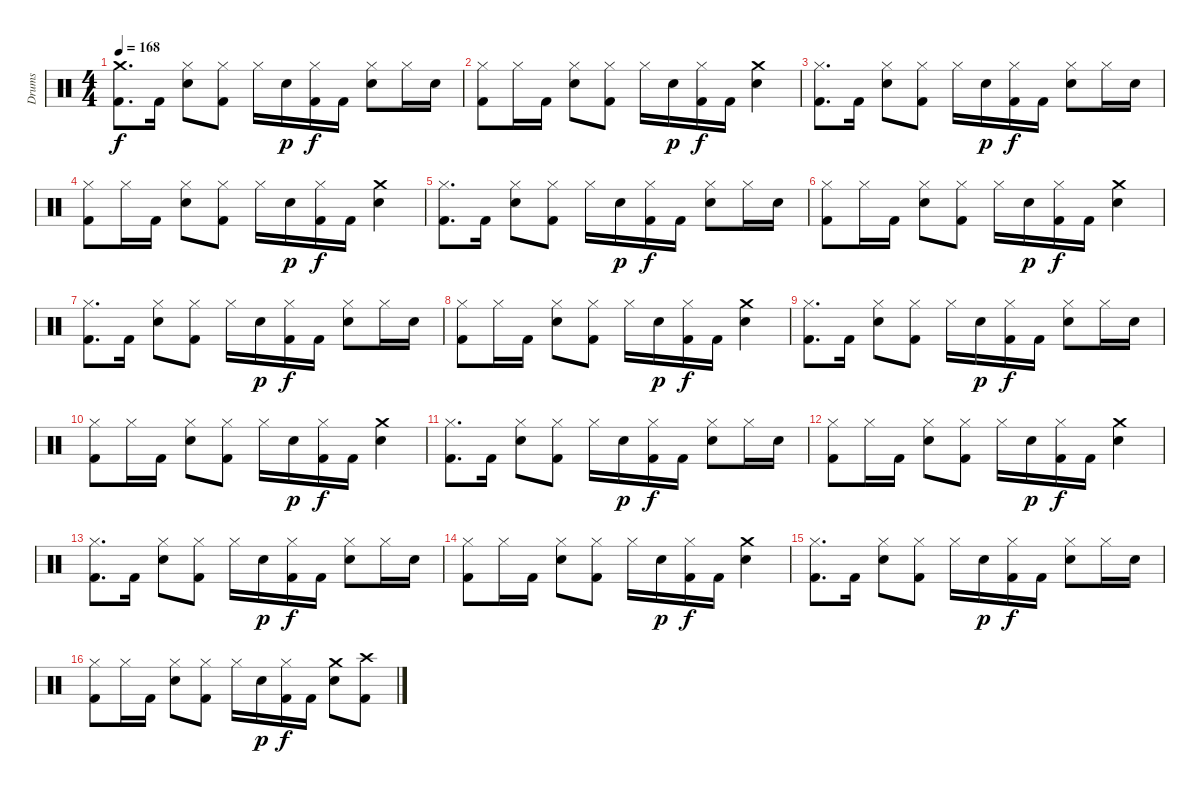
\bracketExtendMode groupsimilarinstruments
\track ("Drumkit" "Drums") {solo instrument percussion}
\staff {score}
\articulation defaults
\ts (4 4)
\tempo 168
\clef neutral
\ks c
("Crash medium (hit)" "Kick (hit) 2").8{d dy f} "Kick (hit) 2".16 ("Hi-Hat (closed)" "Snare (hit) 2").8 ("Hi-Hat (closed)" "Kick (hit) 2").8 "Hi-Hat (closed)".16 "Snare (hit) 2".16{dy p} ("Hi-Hat (closed)" "Kick (hit) 2").16{dy f} "Kick (hit) 2".16 ("Hi-Hat (closed)" "Snare (hit) 2").8 "Hi-Hat (closed)".16 "Snare (hit) 2".16 |
("Hi-Hat (closed)" "Kick (hit) 2").8 "Hi-Hat (closed)".16 "Kick (hit) 2".16 ("Hi-Hat (closed)" "Snare (hit) 2").8 ("Hi-Hat (closed)" "Kick (hit) 2").8 "Hi-Hat (closed)".16 "Snare (hit) 2".16{dy p} ("Hi-Hat (closed)" "Kick (hit) 2").16{dy f} "Kick (hit) 2".16 ("Crash medium (hit)" "Snare (hit) 2").4 |
("Hi-Hat (closed)" "Kick (hit) 2").8{d} "Kick (hit) 2".16 ("Hi-Hat (closed)" "Snare (hit) 2").8 ("Hi-Hat (closed)" "Kick (hit) 2").8 "Hi-Hat (closed)".16 "Snare (hit) 2".16{dy p} ("Hi-Hat (closed)" "Kick (hit) 2").16{dy f} "Kick (hit) 2".16 ("Hi-Hat (closed)" "Snare (hit) 2").8 "Hi-Hat (closed)".16 "Snare (hit) 2".16 |
("Hi-Hat (closed)" "Kick (hit) 2").8 "Hi-Hat (closed)".16 "Kick (hit) 2".16 ("Hi-Hat (closed)" "Snare (hit) 2").8 ("Hi-Hat (closed)" "Kick (hit) 2").8 "Hi-Hat (closed)".16 "Snare (hit) 2".16{dy p} ("Hi-Hat (closed)" "Kick (hit) 2").16{dy f} "Kick (hit) 2".16 ("Crash medium (hit)" "Snare (hit) 2").4 |
("Hi-Hat (closed)" "Kick (hit) 2").8{d} "Kick (hit) 2".16 ("Hi-Hat (closed)" "Snare (hit) 2").8 ("Hi-Hat (closed)" "Kick (hit) 2").8 "Hi-Hat (closed)".16 "Snare (hit) 2".16{dy p} ("Hi-Hat (closed)" "Kick (hit) 2").16{dy f} "Kick (hit) 2".16 ("Hi-Hat (closed)" "Snare (hit) 2").8 "Hi-Hat (closed)".16 "Snare (hit) 2".16 |
("Hi-Hat (closed)" "Kick (hit) 2").8 "Hi-Hat (closed)".16 "Kick (hit) 2".16 ("Hi-Hat (closed)" "Snare (hit) 2").8 ("Hi-Hat (closed)" "Kick (hit) 2").8 "Hi-Hat (closed)".16 "Snare (hit) 2".16{dy p} ("Hi-Hat (closed)" "Kick (hit) 2").16{dy f} "Kick (hit) 2".16 ("Crash medium (hit)" "Snare (hit) 2").4 |
("Hi-Hat (closed)" "Kick (hit) 2").8{d} "Kick (hit) 2".16 ("Hi-Hat (closed)" "Snare (hit) 2").8 ("Hi-Hat (closed)" "Kick (hit) 2").8 "Hi-Hat (closed)".16 "Snare (hit) 2".16{dy p} ("Hi-Hat (closed)" "Kick (hit) 2").16{dy f} "Kick (hit) 2".16 ("Hi-Hat (closed)" "Snare (hit) 2").8 "Hi-Hat (closed)".16 "Snare (hit) 2".16 |
("Hi-Hat (closed)" "Kick (hit) 2").8 "Hi-Hat (closed)".16 "Kick (hit) 2".16 ("Hi-Hat (closed)" "Snare (hit) 2").8 ("Hi-Hat (closed)" "Kick (hit) 2").8 "Hi-Hat (closed)".16 "Snare (hit) 2".16{dy p} ("Hi-Hat (closed)" "Kick (hit) 2").16{dy f} "Kick (hit) 2".16 ("Crash medium (hit)" "Snare (hit) 2").4 |
("Hi-Hat (closed)" "Kick (hit) 2").8{d} "Kick (hit) 2".16 ("Hi-Hat (closed)" "Snare (hit) 2").8 ("Hi-Hat (closed)" "Kick (hit) 2").8 "Hi-Hat (closed)".16 "Snare (hit) 2".16{dy p} ("Hi-Hat (closed)" "Kick (hit) 2").16{dy f} "Kick (hit) 2".16 ("Hi-Hat (closed)" "Snare (hit) 2").8 "Hi-Hat (closed)".16 "Snare (hit) 2".16 |
("Hi-Hat (closed)" "Kick (hit) 2").8 "Hi-Hat (closed)".16 "Kick (hit) 2".16 ("Hi-Hat (closed)" "Snare (hit) 2").8 ("Hi-Hat (closed)" "Kick (hit) 2").8 "Hi-Hat (closed)".16 "Snare (hit) 2".16{dy p} ("Hi-Hat (closed)" "Kick (hit) 2").16{dy f} "Kick (hit) 2".16 ("Crash medium (hit)" "Snare (hit) 2").4 |
("Hi-Hat (closed)" "Kick (hit) 2").8{d} "Kick (hit) 2".16 ("Hi-Hat (closed)" "Snare (hit) 2").8 ("Hi-Hat (closed)" "Kick (hit) 2").8 "Hi-Hat (closed)".16 "Snare (hit) 2".16{dy p} ("Hi-Hat (closed)" "Kick (hit) 2").16{dy f} "Kick (hit) 2".16 ("Hi-Hat (closed)" "Snare (hit) 2").8 "Hi-Hat (closed)".16 "Snare (hit) 2".16 |
("Hi-Hat (closed)" "Kick (hit) 2").8 "Hi-Hat (closed)".16 "Kick (hit) 2".16 ("Hi-Hat (closed)" "Snare (hit) 2").8 ("Hi-Hat (closed)" "Kick (hit) 2").8 "Hi-Hat (closed)".16 "Snare (hit) 2".16{dy p} ("Hi-Hat (closed)" "Kick (hit) 2").16{dy f} "Kick (hit) 2".16 ("Crash medium (hit)" "Snare (hit) 2").4 |
("Hi-Hat (closed)" "Kick (hit) 2").8{d} "Kick (hit) 2".16 ("Hi-Hat (closed)" "Snare (hit) 2").8 ("Hi-Hat (closed)" "Kick (hit) 2").8 "Hi-Hat (closed)".16 "Snare (hit) 2".16{dy p} ("Hi-Hat (closed)" "Kick (hit) 2").16{dy f} "Kick (hit) 2".16 ("Hi-Hat (closed)" "Snare (hit) 2").8 "Hi-Hat (closed)".16 "Snare (hit) 2".16 |
("Hi-Hat (closed)" "Kick (hit) 2").8 "Hi-Hat (closed)".16 "Kick (hit) 2".16 ("Hi-Hat (closed)" "Snare (hit) 2").8 ("Hi-Hat (closed)" "Kick (hit) 2").8 "Hi-Hat (closed)".16 "Snare (hit) 2".16{dy p} ("Hi-Hat (closed)" "Kick (hit) 2").16{dy f} "Kick (hit) 2".16 ("Crash medium (hit)" "Snare (hit) 2").4 |
("Hi-Hat (closed)" "Kick (hit) 2").8{d} "Kick (hit) 2".16 ("Hi-Hat (closed)" "Snare (hit) 2").8 ("Hi-Hat (closed)" "Kick (hit) 2").8 "Hi-Hat (closed)".16 "Snare (hit) 2".16{dy p} ("Hi-Hat (closed)" "Kick (hit) 2").16{dy f} "Kick (hit) 2".16 ("Hi-Hat (closed)" "Snare (hit) 2").8 "Hi-Hat (closed)".16 "Snare (hit) 2".16 |
("Hi-Hat (closed)" "Kick (hit) 2").8 "Hi-Hat (closed)".16 "Kick (hit) 2".16 ("Hi-Hat (closed)" "Snare (hit) 2").8 ("Hi-Hat (closed)" "Kick (hit) 2").8 "Hi-Hat (closed)".16 "Snare (hit) 2".16{dy p} ("Hi-Hat (closed)" "Kick (hit) 2").16{dy f} "Kick (hit) 2".16 ("Crash medium (hit)" "Snare (hit) 2").8 ("Crash high (hit)" "Kick (hit) 2").8
